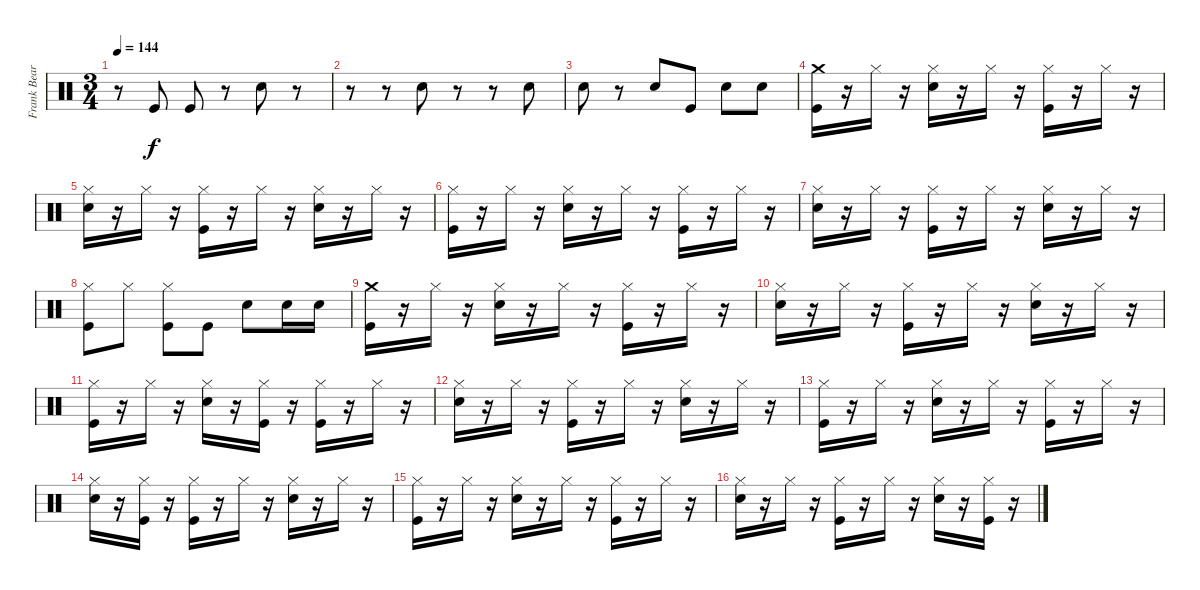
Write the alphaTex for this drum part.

\track ("Frank Beard" "Frank Bear") {instrument percussion}
\staff {score}
\articulation defaults
\ts (3 4)
\tempo 144
\clef neutral
\ks c
r.8{dy f} "Kick (hit)".8 "Kick (hit)".8 r.8 "Electric Snare (hit)".8 r.8 |
r.8 r.8 "Electric Snare (hit)".8 r.8 r.8 "Electric Snare (hit)".8 |
"Electric Snare (hit)".8 r.8 "Electric Snare (hit)".8 "Kick (hit)".8 "Electric Snare (hit)".8 "Electric Snare (hit)".8 |
("Crash medium (hit)" "Kick (hit)").16 r.16 "Hi-Hat (closed)".16 r.16 ("Hi-Hat (closed)" "Electric Snare (hit)").16 r.16 "Hi-Hat (closed)".16 r.16 ("Hi-Hat (closed)" "Kick (hit)").16 r.16 "Hi-Hat (closed)".16 r.16 |
("Hi-Hat (closed)" "Electric Snare (hit)").16 r.16 "Hi-Hat (closed)".16 r.16 ("Hi-Hat (closed)" "Kick (hit)").16 r.16 "Hi-Hat (closed)".16 r.16 ("Hi-Hat (closed)" "Electric Snare (hit)").16 r.16 "Hi-Hat (closed)".16 r.16 |
("Hi-Hat (closed)" "Kick (hit)").16 r.16 "Hi-Hat (closed)".16 r.16 ("Hi-Hat (closed)" "Electric Snare (hit)").16 r.16 "Hi-Hat (closed)".16 r.16 ("Hi-Hat (closed)" "Kick (hit)").16 r.16 "Hi-Hat (closed)".16 r.16 |
("Hi-Hat (closed)" "Electric Snare (hit)").16 r.16 "Hi-Hat (closed)".16 r.16 ("Hi-Hat (closed)" "Kick (hit)").16 r.16 "Hi-Hat (closed)".16 r.16 ("Hi-Hat (closed)" "Electric Snare (hit)").16 r.16 "Hi-Hat (closed)".16 r.16 |
("Hi-Hat (closed)" "Kick (hit)").8 "Hi-Hat (closed)".8 ("Hi-Hat (closed)" "Kick (hit)").8 "Kick (hit)".8 "Electric Snare (hit)".8 "Electric Snare (hit)".16 "Electric Snare (hit)".16 |
("Crash medium (hit)" "Kick (hit)").16 r.16 "Hi-Hat (closed)".16 r.16 ("Hi-Hat (closed)" "Electric Snare (hit)").16 r.16 "Hi-Hat (closed)".16 r.16 ("Hi-Hat (closed)" "Kick (hit)").16 r.16 "Hi-Hat (closed)".16 r.16 |
("Hi-Hat (closed)" "Electric Snare (hit)").16 r.16 "Hi-Hat (closed)".16 r.16 ("Hi-Hat (closed)" "Kick (hit)").16 r.16 "Hi-Hat (closed)".16 r.16 ("Hi-Hat (closed)" "Electric Snare (hit)").16 r.16 "Hi-Hat (closed)".16 r.16 |
("Hi-Hat (closed)" "Kick (hit)").16 r.16 "Hi-Hat (closed)".16 r.16 ("Hi-Hat (closed)" "Electric Snare (hit)").16 r.16 ("Hi-Hat (closed)" "Kick (hit)").16 r.16 ("Hi-Hat (closed)" "Kick (hit)").16 r.16 "Hi-Hat (closed)".16 r.16 |
("Hi-Hat (closed)" "Electric Snare (hit)").16 r.16 "Hi-Hat (closed)".16 r.16 ("Hi-Hat (closed)" "Kick (hit)").16 r.16 "Hi-Hat (closed)".16 r.16 ("Hi-Hat (closed)" "Electric Snare (hit)").16 r.16 "Hi-Hat (closed)".16 r.16 |
("Hi-Hat (closed)" "Kick (hit)").16 r.16 "Hi-Hat (closed)".16 r.16 ("Hi-Hat (closed)" "Electric Snare (hit)").16 r.16 "Hi-Hat (closed)".16 r.16 ("Hi-Hat (closed)" "Kick (hit)").16 r.16 "Hi-Hat (closed)".16 r.16 |
("Hi-Hat (closed)" "Electric Snare (hit)").16 r.16 ("Hi-Hat (closed)" "Kick (hit)").16 r.16 ("Hi-Hat (closed)" "Kick (hit)").16 r.16 "Hi-Hat (closed)".16 r.16 ("Hi-Hat (closed)" "Electric Snare (hit)").16 r.16 "Hi-Hat (closed)".16 r.16 |
("Hi-Hat (closed)" "Kick (hit)").16 r.16 "Hi-Hat (closed)".16 r.16 ("Hi-Hat (closed)" "Electric Snare (hit)").16 r.16 "Hi-Hat (closed)".16 r.16 ("Hi-Hat (closed)" "Kick (hit)").16 r.16 "Hi-Hat (closed)".16 r.16 |
("Hi-Hat (closed)" "Electric Snare (hit)").16 r.16 "Hi-Hat (closed)".16 r.16 ("Hi-Hat (closed)" "Kick (hit)").16 r.16 "Hi-Hat (closed)".16 r.16 ("Hi-Hat (closed)" "Electric Snare (hit)").16 r.16 ("Hi-Hat (closed)" "Kick (hit)").16 r.16
